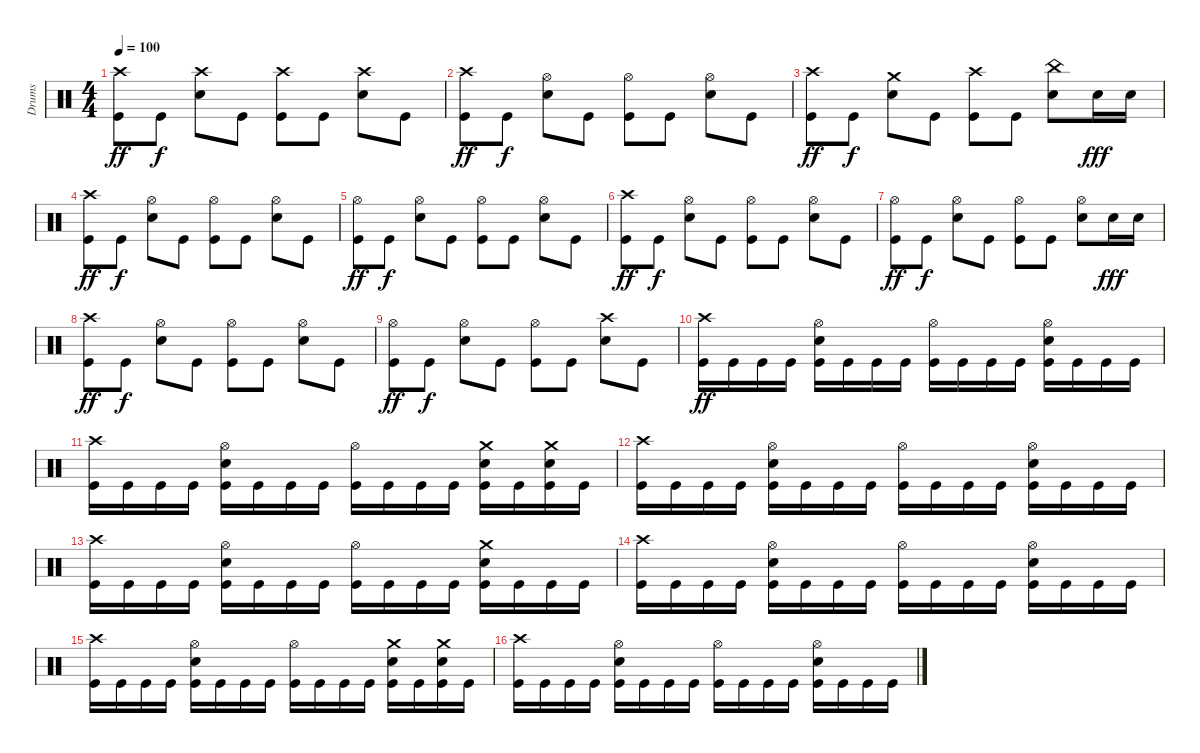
\track ("Drums" "Drums") {instrument percussion}
\staff {score}
\articulation defaults
\ts (4 4)
\tempo 100
\clef neutral
\ks c
("Crash high (hit)" "Kick (hit)").8{dy ff} "Kick (hit)".8{dy f} ("Crash high (hit)" "Snare (hit) 2").8 "Kick (hit)".8 ("Crash high (hit)" "Kick (hit)").8 "Kick (hit)".8 ("Crash high (hit)" "Snare (hit) 2").8 "Kick (hit)".8 |
("Crash high (hit)" "Kick (hit)").8{dy ff} "Kick (hit)".8{dy f} ("Hi-Hat (open)" "Snare (hit) 2").8 "Kick (hit)".8 ("Hi-Hat (open)" "Kick (hit)").8 "Kick (hit)".8 ("Hi-Hat (open)" "Snare (hit) 2").8 "Kick (hit)".8 |
("Crash high (hit)" "Kick (hit)").8{dy ff} "Kick (hit)".8{dy f} ("Crash medium (hit)" "Snare (hit) 2").8 "Kick (hit)".8 ("Crash high (hit)" "Kick (hit)").8 "Kick (hit)".8 ("China (hit)" "Snare (hit) 2").8 "Snare (hit) 2".16{dy fff} "Snare (hit) 2".16 |
("Crash high (hit)" "Kick (hit)").8{dy ff} "Kick (hit)".8{dy f} ("Hi-Hat (open)" "Snare (hit) 2").8 "Kick (hit)".8 ("Hi-Hat (open)" "Kick (hit)").8 "Kick (hit)".8 ("Hi-Hat (open)" "Snare (hit) 2").8 "Kick (hit)".8 |
("Hi-Hat (open)" "Kick (hit)").8{dy ff} "Kick (hit)".8{dy f} ("Hi-Hat (open)" "Snare (hit) 2").8 "Kick (hit)".8 ("Hi-Hat (open)" "Kick (hit)").8 "Kick (hit)".8 ("Hi-Hat (open)" "Snare (hit) 2").8 "Kick (hit)".8 |
("Crash high (hit)" "Kick (hit)").8{dy ff} "Kick (hit)".8{dy f} ("Hi-Hat (open)" "Snare (hit) 2").8 "Kick (hit)".8 ("Hi-Hat (open)" "Kick (hit)").8 "Kick (hit)".8 ("Hi-Hat (open)" "Snare (hit) 2").8 "Kick (hit)".8 |
("Hi-Hat (open)" "Kick (hit)").8{dy ff} "Kick (hit)".8{dy f} ("Hi-Hat (open)" "Snare (hit) 2").8 "Kick (hit)".8 ("Hi-Hat (open)" "Kick (hit)").8 "Kick (hit)".8 ("Hi-Hat (open)" "Snare (hit) 2").8 "Snare (hit) 2".16{dy fff} "Snare (hit) 2".16 |
("Crash high (hit)" "Kick (hit)").8{dy ff} "Kick (hit)".8{dy f} ("Hi-Hat (open)" "Snare (hit) 2").8 "Kick (hit)".8 ("Hi-Hat (open)" "Kick (hit)").8 "Kick (hit)".8 ("Hi-Hat (open)" "Snare (hit) 2").8 "Kick (hit)".8 |
("Hi-Hat (open)" "Kick (hit)").8{dy ff} "Kick (hit)".8{dy f} ("Hi-Hat (open)" "Snare (hit) 2").8 "Kick (hit)".8 ("Hi-Hat (open)" "Kick (hit)").8 "Kick (hit)".8 ("Crash high (hit)" "Snare (hit) 2").8 "Kick (hit)".8 |
("Crash high (hit)" "Kick (hit)").16{dy ff} "Kick (hit)".16 "Kick (hit)".16 "Kick (hit)".16 ("Hi-Hat (open)" "Kick (hit)" "Snare (hit) 2").16 "Kick (hit)".16 "Kick (hit)".16 "Kick (hit)".16 ("Hi-Hat (open)" "Kick (hit)").16 "Kick (hit)".16 "Kick (hit)".16 "Kick (hit)".16 ("Hi-Hat (open)" "Kick (hit)" "Snare (hit) 2").16 "Kick (hit)".16 "Kick (hit)".16 "Kick (hit)".16 |
("Crash high (hit)" "Kick (hit)").16 "Kick (hit)".16 "Kick (hit)".16 "Kick (hit)".16 ("Hi-Hat (open)" "Kick (hit)" "Snare (hit) 2").16 "Kick (hit)".16 "Kick (hit)".16 "Kick (hit)".16 ("Hi-Hat (open)" "Kick (hit)").16 "Kick (hit)".16 "Kick (hit)".16 "Kick (hit)".16 ("Crash medium (hit)" "Kick (hit)" "Snare (hit) 2").16 "Kick (hit)".16 ("Crash medium (hit)" "Kick (hit)" "Snare (hit) 2").16 "Kick (hit)".16 |
("Crash high (hit)" "Kick (hit)").16 "Kick (hit)".16 "Kick (hit)".16 "Kick (hit)".16 ("Hi-Hat (open)" "Kick (hit)" "Snare (hit) 2").16 "Kick (hit)".16 "Kick (hit)".16 "Kick (hit)".16 ("Hi-Hat (open)" "Kick (hit)").16 "Kick (hit)".16 "Kick (hit)".16 "Kick (hit)".16 ("Hi-Hat (open)" "Kick (hit)" "Snare (hit) 2").16 "Kick (hit)".16 "Kick (hit)".16 "Kick (hit)".16 |
("Crash high (hit)" "Kick (hit)").16 "Kick (hit)".16 "Kick (hit)".16 "Kick (hit)".16 ("Hi-Hat (open)" "Kick (hit)" "Snare (hit) 2").16 "Kick (hit)".16 "Kick (hit)".16 "Kick (hit)".16 ("Hi-Hat (open)" "Kick (hit)").16 "Kick (hit)".16 "Kick (hit)".16 "Kick (hit)".16 ("Crash medium (hit)" "Kick (hit)" "Snare (hit) 2").16 "Kick (hit)".16 "Kick (hit)".16 "Kick (hit)".16 |
("Crash high (hit)" "Kick (hit)").16 "Kick (hit)".16 "Kick (hit)".16 "Kick (hit)".16 ("Hi-Hat (open)" "Kick (hit)" "Snare (hit) 2").16 "Kick (hit)".16 "Kick (hit)".16 "Kick (hit)".16 ("Hi-Hat (open)" "Kick (hit)").16 "Kick (hit)".16 "Kick (hit)".16 "Kick (hit)".16 ("Hi-Hat (open)" "Kick (hit)" "Snare (hit) 2").16 "Kick (hit)".16 "Kick (hit)".16 "Kick (hit)".16 |
("Crash high (hit)" "Kick (hit)").16 "Kick (hit)".16 "Kick (hit)".16 "Kick (hit)".16 ("Hi-Hat (open)" "Kick (hit)" "Snare (hit) 2").16 "Kick (hit)".16 "Kick (hit)".16 "Kick (hit)".16 ("Hi-Hat (open)" "Kick (hit)").16 "Kick (hit)".16 "Kick (hit)".16 "Kick (hit)".16 ("Crash medium (hit)" "Kick (hit)" "Snare (hit) 2").16 "Kick (hit)".16 ("Crash medium (hit)" "Kick (hit)" "Snare (hit) 2").16 "Kick (hit)".16 |
("Crash high (hit)" "Kick (hit)").16 "Kick (hit)".16 "Kick (hit)".16 "Kick (hit)".16 ("Hi-Hat (open)" "Kick (hit)" "Snare (hit) 2").16 "Kick (hit)".16 "Kick (hit)".16 "Kick (hit)".16 ("Hi-Hat (open)" "Kick (hit)").16 "Kick (hit)".16 "Kick (hit)".16 "Kick (hit)".16 ("Hi-Hat (open)" "Kick (hit)" "Snare (hit) 2").16 "Kick (hit)".16 "Kick (hit)".16 "Kick (hit)".16
